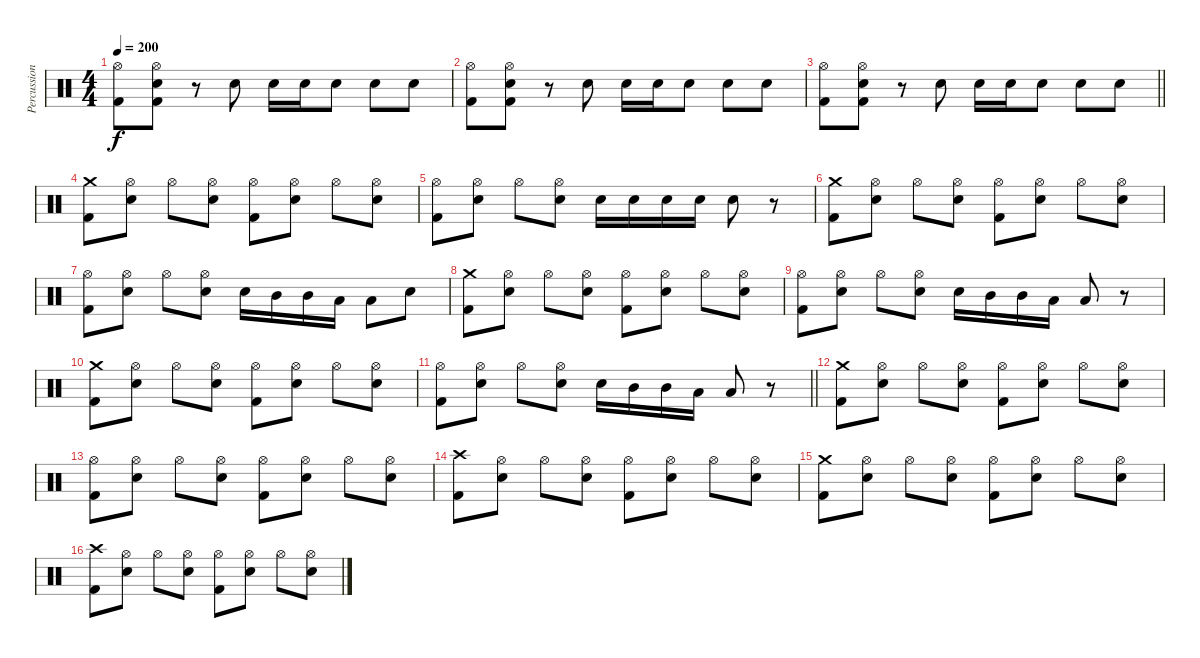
\track ("Percussion" "Percussion") {instrument percussion}
\staff {score}
\articulation defaults
\ts (4 4)
\tempo 200
\clef neutral
\ks c
("Hi-Hat (open)" "Kick (hit) 2").8{dy f} ("Hi-Hat (open)" "Electric Snare (hit)" "Kick (hit) 2").8 r.8 "Electric Snare (hit)".8 "Electric Snare (hit)".16 "Electric Snare (hit)".16 "Electric Snare (hit)".8 "Electric Snare (hit)".8 "Electric Snare (hit)".8 |
("Hi-Hat (open)" "Kick (hit) 2").8 ("Hi-Hat (open)" "Electric Snare (hit)" "Kick (hit) 2").8 r.8 "Electric Snare (hit)".8 "Electric Snare (hit)".16 "Electric Snare (hit)".16 "Electric Snare (hit)".8 "Electric Snare (hit)".8 "Electric Snare (hit)".8 |
\barLineRight lightlight
("Hi-Hat (open)" "Kick (hit) 2").8 ("Hi-Hat (open)" "Electric Snare (hit)" "Kick (hit) 2").8 r.8 "Electric Snare (hit)".8 "Electric Snare (hit)".16 "Electric Snare (hit)".16 "Electric Snare (hit)".8 "Electric Snare (hit)".8 "Electric Snare (hit)".8 |
("Crash medium (hit)" "Kick (hit) 2").8 ("Hi-Hat (open)" "Electric Snare (hit)").8 "Hi-Hat (open)".8 ("Hi-Hat (open)" "Electric Snare (hit)").8 ("Hi-Hat (open)" "Kick (hit) 2").8 ("Hi-Hat (open)" "Electric Snare (hit)").8 "Hi-Hat (open)".8 ("Hi-Hat (open)" "Electric Snare (hit)").8 |
("Hi-Hat (open)" "Kick (hit) 2").8 ("Hi-Hat (open)" "Electric Snare (hit)").8 "Hi-Hat (open)".8 ("Hi-Hat (open)" "Electric Snare (hit)").8 "Electric Snare (hit)".16 "Electric Snare (hit)".16 "Electric Snare (hit)".16 "Electric Snare (hit)".16 "Electric Snare (hit)".8 r.8 |
("Crash medium (hit)" "Kick (hit) 2").8 ("Hi-Hat (open)" "Electric Snare (hit)").8 "Hi-Hat (open)".8 ("Hi-Hat (open)" "Electric Snare (hit)").8 ("Hi-Hat (open)" "Kick (hit) 2").8 ("Hi-Hat (open)" "Electric Snare (hit)").8 "Hi-Hat (open)".8 ("Hi-Hat (open)" "Electric Snare (hit)").8 |
("Hi-Hat (open)" "Kick (hit) 2").8 ("Hi-Hat (open)" "Electric Snare (hit)").8 "Hi-Hat (open)".8 ("Hi-Hat (open)" "Electric Snare (hit)").8 "Electric Snare (hit)".16 "Mid Tom (hit)".16 "Mid Tom (hit)".16 "Low Tom (hit)".16 "Low Tom (hit)".8 "Electric Snare (hit)".8 |
("Crash medium (hit)" "Kick (hit) 2").8 ("Hi-Hat (open)" "Electric Snare (hit)").8 "Hi-Hat (open)".8 ("Hi-Hat (open)" "Electric Snare (hit)").8 ("Hi-Hat (open)" "Kick (hit) 2").8 ("Hi-Hat (open)" "Electric Snare (hit)").8 "Hi-Hat (open)".8 ("Hi-Hat (open)" "Electric Snare (hit)").8 |
("Hi-Hat (open)" "Kick (hit) 2").8 ("Hi-Hat (open)" "Electric Snare (hit)").8 "Hi-Hat (open)".8 ("Hi-Hat (open)" "Electric Snare (hit)").8 "Electric Snare (hit)".16 "Mid Tom (hit)".16 "Mid Tom (hit)".16 "Low Tom (hit)".16 "Low Tom (hit)".8 r.8 |
("Crash medium (hit)" "Kick (hit) 2").8 ("Hi-Hat (open)" "Electric Snare (hit)").8 "Hi-Hat (open)".8 ("Hi-Hat (open)" "Electric Snare (hit)").8 ("Hi-Hat (open)" "Kick (hit) 2").8 ("Hi-Hat (open)" "Electric Snare (hit)").8 "Hi-Hat (open)".8 ("Hi-Hat (open)" "Electric Snare (hit)").8 |
\barLineRight lightlight
("Hi-Hat (open)" "Kick (hit) 2").8 ("Hi-Hat (open)" "Electric Snare (hit)").8 "Hi-Hat (open)".8 ("Hi-Hat (open)" "Electric Snare (hit)").8 "Electric Snare (hit)".16 "Mid Tom (hit)".16 "Mid Tom (hit)".16 "Low Tom (hit)".16 "Low Tom (hit)".8 r.8 |
("Crash medium (hit)" "Kick (hit) 2").8 ("Hi-Hat (open)" "Electric Snare (hit)").8 "Hi-Hat (open)".8 ("Hi-Hat (open)" "Electric Snare (hit)").8 ("Hi-Hat (open)" "Kick (hit) 2").8 ("Hi-Hat (open)" "Electric Snare (hit)").8 "Hi-Hat (open)".8 ("Hi-Hat (open)" "Electric Snare (hit)").8 |
("Hi-Hat (open)" "Kick (hit) 2").8 ("Hi-Hat (open)" "Electric Snare (hit)").8 "Hi-Hat (open)".8 ("Hi-Hat (open)" "Electric Snare (hit)").8 ("Hi-Hat (open)" "Kick (hit) 2").8 ("Hi-Hat (open)" "Electric Snare (hit)").8 "Hi-Hat (open)".8 ("Hi-Hat (open)" "Electric Snare (hit)").8 |
("Crash high (hit)" "Kick (hit) 2").8 ("Hi-Hat (open)" "Electric Snare (hit)").8 "Hi-Hat (open)".8 ("Hi-Hat (open)" "Electric Snare (hit)").8 ("Hi-Hat (open)" "Kick (hit) 2").8 ("Hi-Hat (open)" "Electric Snare (hit)").8 "Hi-Hat (open)".8 ("Hi-Hat (open)" "Electric Snare (hit)").8 |
("Crash medium (hit)" "Kick (hit) 2").8 ("Hi-Hat (open)" "Electric Snare (hit)").8 "Hi-Hat (open)".8 ("Hi-Hat (open)" "Electric Snare (hit)").8 ("Hi-Hat (open)" "Kick (hit) 2").8 ("Hi-Hat (open)" "Electric Snare (hit)").8 "Hi-Hat (open)".8 ("Hi-Hat (open)" "Electric Snare (hit)").8 |
("Crash high (hit)" "Kick (hit) 2").8 ("Hi-Hat (open)" "Electric Snare (hit)").8 "Hi-Hat (open)".8 ("Hi-Hat (open)" "Electric Snare (hit)").8 ("Hi-Hat (open)" "Kick (hit) 2").8 ("Hi-Hat (open)" "Electric Snare (hit)").8 "Hi-Hat (open)".8 ("Hi-Hat (open)" "Electric Snare (hit)").8
